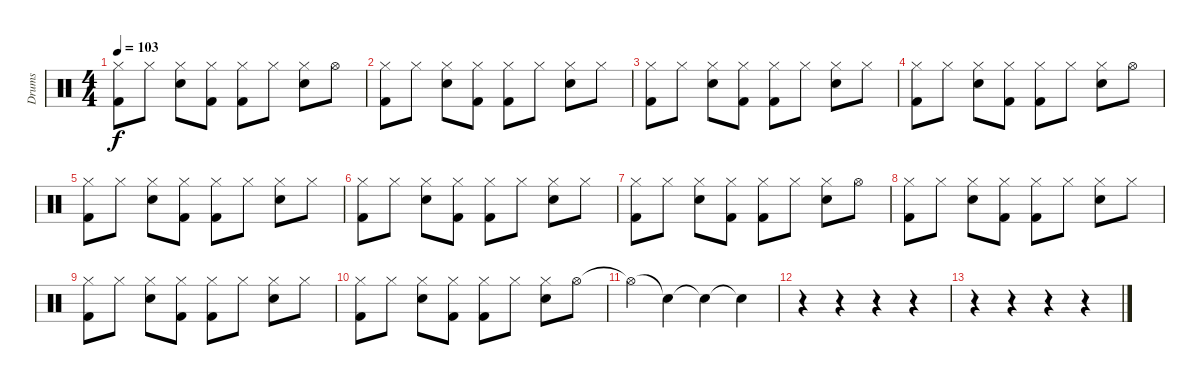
\track ("Drums" "Drums") {instrument percussion}
\staff {score}
\articulation defaults
\ts (4 4)
\tempo 103
\clef neutral
\ks c
("Hi-Hat (closed)" "Kick (hit) 2").8{dy f} "Hi-Hat (closed)".8 ("Hi-Hat (closed)" "Electric Snare (hit)").8 ("Hi-Hat (closed)" "Kick (hit) 2").8 ("Hi-Hat (closed)" "Kick (hit) 2").8 "Hi-Hat (closed)".8 ("Hi-Hat (closed)" "Electric Snare (hit)").8 "Hi-Hat (open)".8 |
("Hi-Hat (closed)" "Kick (hit) 2").8 "Hi-Hat (closed)".8 ("Hi-Hat (closed)" "Electric Snare (hit)").8 ("Hi-Hat (closed)" "Kick (hit) 2").8 ("Hi-Hat (closed)" "Kick (hit) 2").8 "Hi-Hat (closed)".8 ("Hi-Hat (closed)" "Electric Snare (hit)").8 "Hi-Hat (closed)".8 |
("Hi-Hat (closed)" "Kick (hit) 2").8 "Hi-Hat (closed)".8 ("Hi-Hat (closed)" "Electric Snare (hit)").8 ("Hi-Hat (closed)" "Kick (hit) 2").8 ("Hi-Hat (closed)" "Kick (hit) 2").8 "Hi-Hat (closed)".8 ("Hi-Hat (closed)" "Electric Snare (hit)").8 "Hi-Hat (closed)".8 |
("Hi-Hat (closed)" "Kick (hit) 2").8 "Hi-Hat (closed)".8 ("Hi-Hat (closed)" "Electric Snare (hit)").8 ("Hi-Hat (closed)" "Kick (hit) 2").8 ("Hi-Hat (closed)" "Kick (hit) 2").8 "Hi-Hat (closed)".8 ("Hi-Hat (closed)" "Electric Snare (hit)").8 "Hi-Hat (open)".8 |
("Hi-Hat (closed)" "Kick (hit) 2").8 "Hi-Hat (closed)".8 ("Hi-Hat (closed)" "Electric Snare (hit)").8 ("Hi-Hat (closed)" "Kick (hit) 2").8 ("Hi-Hat (closed)" "Kick (hit) 2").8 "Hi-Hat (closed)".8 ("Hi-Hat (closed)" "Electric Snare (hit)").8 "Hi-Hat (closed)".8 |
("Hi-Hat (closed)" "Kick (hit) 2").8 "Hi-Hat (closed)".8 ("Hi-Hat (closed)" "Electric Snare (hit)").8 ("Hi-Hat (closed)" "Kick (hit) 2").8 ("Hi-Hat (closed)" "Kick (hit) 2").8 "Hi-Hat (closed)".8 ("Hi-Hat (closed)" "Electric Snare (hit)").8 "Hi-Hat (closed)".8 |
("Hi-Hat (closed)" "Kick (hit) 2").8 "Hi-Hat (closed)".8 ("Hi-Hat (closed)" "Electric Snare (hit)").8 ("Hi-Hat (closed)" "Kick (hit) 2").8 ("Hi-Hat (closed)" "Kick (hit) 2").8 "Hi-Hat (closed)".8 ("Hi-Hat (closed)" "Electric Snare (hit)").8 "Hi-Hat (open)".8 |
("Hi-Hat (closed)" "Kick (hit) 2").8 "Hi-Hat (closed)".8 ("Hi-Hat (closed)" "Electric Snare (hit)").8 ("Hi-Hat (closed)" "Kick (hit) 2").8 ("Hi-Hat (closed)" "Kick (hit) 2").8 "Hi-Hat (closed)".8 ("Hi-Hat (closed)" "Electric Snare (hit)").8 "Hi-Hat (closed)".8 |
("Hi-Hat (closed)" "Kick (hit) 2").8 "Hi-Hat (closed)".8 ("Hi-Hat (closed)" "Electric Snare (hit)").8 ("Hi-Hat (closed)" "Kick (hit) 2").8 ("Hi-Hat (closed)" "Kick (hit) 2").8 "Hi-Hat (closed)".8 ("Hi-Hat (closed)" "Electric Snare (hit)").8 "Hi-Hat (closed)".8 |
("Hi-Hat (closed)" "Kick (hit) 2").8 "Hi-Hat (closed)".8 ("Hi-Hat (closed)" "Electric Snare (hit)").8 ("Hi-Hat (closed)" "Kick (hit) 2").8 ("Hi-Hat (closed)" "Kick (hit) 2").8 "Hi-Hat (closed)".8 ("Hi-Hat (closed)" "Electric Snare (hit)").8 "Hi-Hat (open)".8 |
"Hi-Hat (open)"{t}.4 "Snare (hit)"{t}.4 "Snare (hit)"{t}.4 "Snare (hit)"{t}.4 |
r.4 r.4 r.4 r.4 |
r.4 r.4 r.4 r.4
